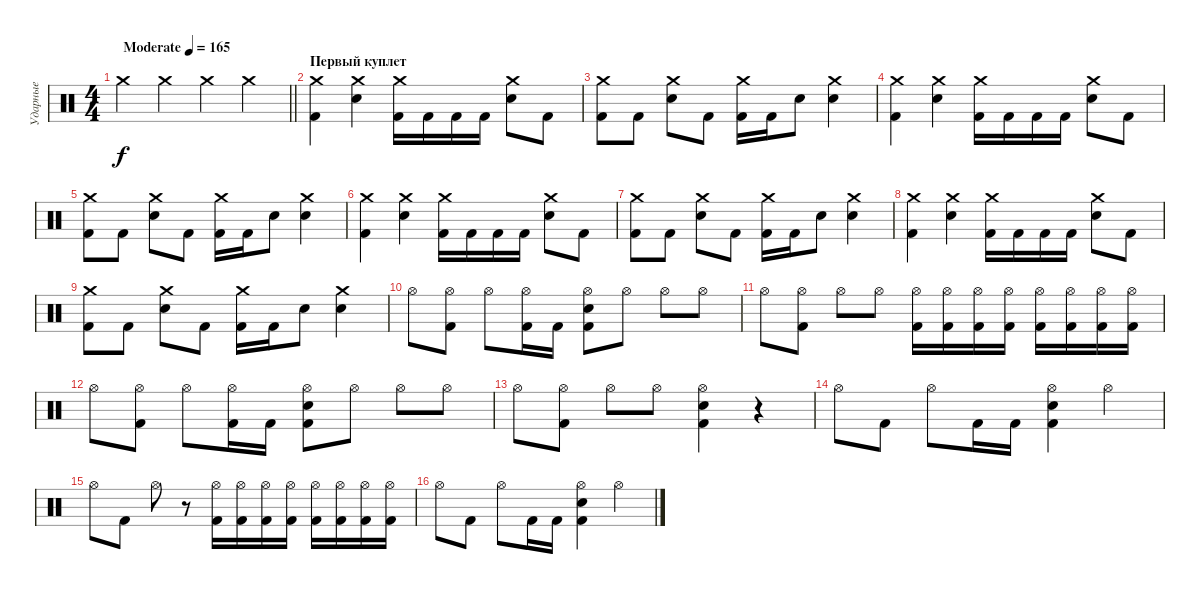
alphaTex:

\track ("Ударные" "Ударные") {instrument percussion}
\staff {score}
\articulation defaults
\ts (4 4)
\tempo (165 "Moderate")
\clef neutral
\barLineRight lightlight
\ks c "Crash medium (hit)".4{dy f} "Crash medium (hit)".4 "Crash medium (hit)".4 "Crash medium (hit)".4
|
\section ("" "Первый куплет")
("Kick (hit) 2" "Crash medium (hit)").4 ("Snare (hit) 2" "Crash medium (hit)").4 ("Crash medium (hit)" "Kick (hit) 2").16 "Kick (hit) 2".16 "Kick (hit) 2".16 "Kick (hit) 2".16 ("Snare (hit) 2" "Crash medium (hit)").8 "Kick (hit) 2".8 |
("Kick (hit) 2" "Crash medium (hit)").8 "Kick (hit) 2".8 ("Snare (hit) 2" "Crash medium (hit)").8 "Kick (hit) 2".8 ("Kick (hit) 2" "Crash medium (hit)").16 "Kick (hit) 2".16 "Snare (hit) 2".8 ("Snare (hit) 2" "Crash medium (hit)").4 |
("Kick (hit) 2" "Crash medium (hit)").4 ("Snare (hit) 2" "Crash medium (hit)").4 ("Crash medium (hit)" "Kick (hit) 2").16 "Kick (hit) 2".16 "Kick (hit) 2".16 "Kick (hit) 2".16 ("Snare (hit) 2" "Crash medium (hit)").8 "Kick (hit) 2".8 |
("Kick (hit) 2" "Crash medium (hit)").8 "Kick (hit) 2".8 ("Snare (hit) 2" "Crash medium (hit)").8 "Kick (hit) 2".8 ("Kick (hit) 2" "Crash medium (hit)").16 "Kick (hit) 2".16 "Snare (hit) 2".8 ("Snare (hit) 2" "Crash medium (hit)").4 |
("Kick (hit) 2" "Crash medium (hit)").4 ("Snare (hit) 2" "Crash medium (hit)").4 ("Crash medium (hit)" "Kick (hit) 2").16 "Kick (hit) 2".16 "Kick (hit) 2".16 "Kick (hit) 2".16 ("Snare (hit) 2" "Crash medium (hit)").8 "Kick (hit) 2".8 |
("Kick (hit) 2" "Crash medium (hit)").8 "Kick (hit) 2".8 ("Snare (hit) 2" "Crash medium (hit)").8 "Kick (hit) 2".8 ("Kick (hit) 2" "Crash medium (hit)").16 "Kick (hit) 2".16 "Snare (hit) 2".8 ("Snare (hit) 2" "Crash medium (hit)").4 |
("Kick (hit) 2" "Crash medium (hit)").4 ("Snare (hit) 2" "Crash medium (hit)").4 ("Crash medium (hit)" "Kick (hit) 2").16 "Kick (hit) 2".16 "Kick (hit) 2".16 "Kick (hit) 2".16 ("Snare (hit) 2" "Crash medium (hit)").8 "Kick (hit) 2".8 |
("Kick (hit) 2" "Crash medium (hit)").8 "Kick (hit) 2".8 ("Snare (hit) 2" "Crash medium (hit)").8 "Kick (hit) 2".8 ("Kick (hit) 2" "Crash medium (hit)").16 "Kick (hit) 2".16 "Snare (hit) 2".8 ("Snare (hit) 2" "Crash medium (hit)").4 |
"Hi-Hat (open)".8 ("Kick (hit) 2" "Hi-Hat (open)").8 "Hi-Hat (open)".8 ("Kick (hit) 2" "Hi-Hat (open)").16 "Kick (hit) 2".16 ("Snare (hit) 2" "Kick (hit) 2" "Hi-Hat (open)").8 "Hi-Hat (open)".8 "Hi-Hat (open)".8 "Hi-Hat (open)".8 |
"Hi-Hat (open)".8 ("Kick (hit) 2" "Hi-Hat (open)").8 "Hi-Hat (open)".8 "Hi-Hat (open)".8 ("Kick (hit) 2" "Hi-Hat (open)").16 ("Kick (hit) 2" "Hi-Hat (open)").16 ("Kick (hit) 2" "Hi-Hat (open)").16 ("Kick (hit) 2" "Hi-Hat (open)").16 ("Kick (hit) 2" "Hi-Hat (open)").16 ("Kick (hit) 2" "Hi-Hat (open)").16 ("Kick (hit) 2" "Hi-Hat (open)").16 ("Kick (hit) 2" "Hi-Hat (open)").16 |
"Hi-Hat (open)".8 ("Kick (hit) 2" "Hi-Hat (open)").8 "Hi-Hat (open)".8 ("Kick (hit) 2" "Hi-Hat (open)").16 "Kick (hit) 2".16 ("Snare (hit) 2" "Kick (hit) 2" "Hi-Hat (open)").8 "Hi-Hat (open)".8 "Hi-Hat (open)".8 "Hi-Hat (open)".8 |
"Hi-Hat (open)".8 ("Kick (hit) 2" "Hi-Hat (open)").8 "Hi-Hat (open)".8 "Hi-Hat (open)".8 ("Snare (hit) 2" "Kick (hit) 2" "Hi-Hat (open)").4 r.4 |
"Hi-Hat (open)".8 "Kick (hit) 2".8 "Hi-Hat (open)".8 "Kick (hit) 2".16 "Kick (hit) 2".16 ("Snare (hit) 2" "Kick (hit) 2" "Hi-Hat (open)").4 "Hi-Hat (open)".4 |
"Hi-Hat (open)".8 "Kick (hit) 2".8 "Hi-Hat (open)".8 r.8 ("Kick (hit) 2" "Hi-Hat (open)").16 ("Kick (hit) 2" "Hi-Hat (open)").16 ("Kick (hit) 2" "Hi-Hat (open)").16 ("Kick (hit) 2" "Hi-Hat (open)").16 ("Kick (hit) 2" "Hi-Hat (open)").16 ("Kick (hit) 2" "Hi-Hat (open)").16 ("Kick (hit) 2" "Hi-Hat (open)").16 ("Kick (hit) 2" "Hi-Hat (open)").16 |
"Hi-Hat (open)".8 "Kick (hit) 2".8 "Hi-Hat (open)".8 "Kick (hit) 2".16 "Kick (hit) 2".16 ("Snare (hit) 2" "Kick (hit) 2" "Hi-Hat (open)").4 "Hi-Hat (open)".4
